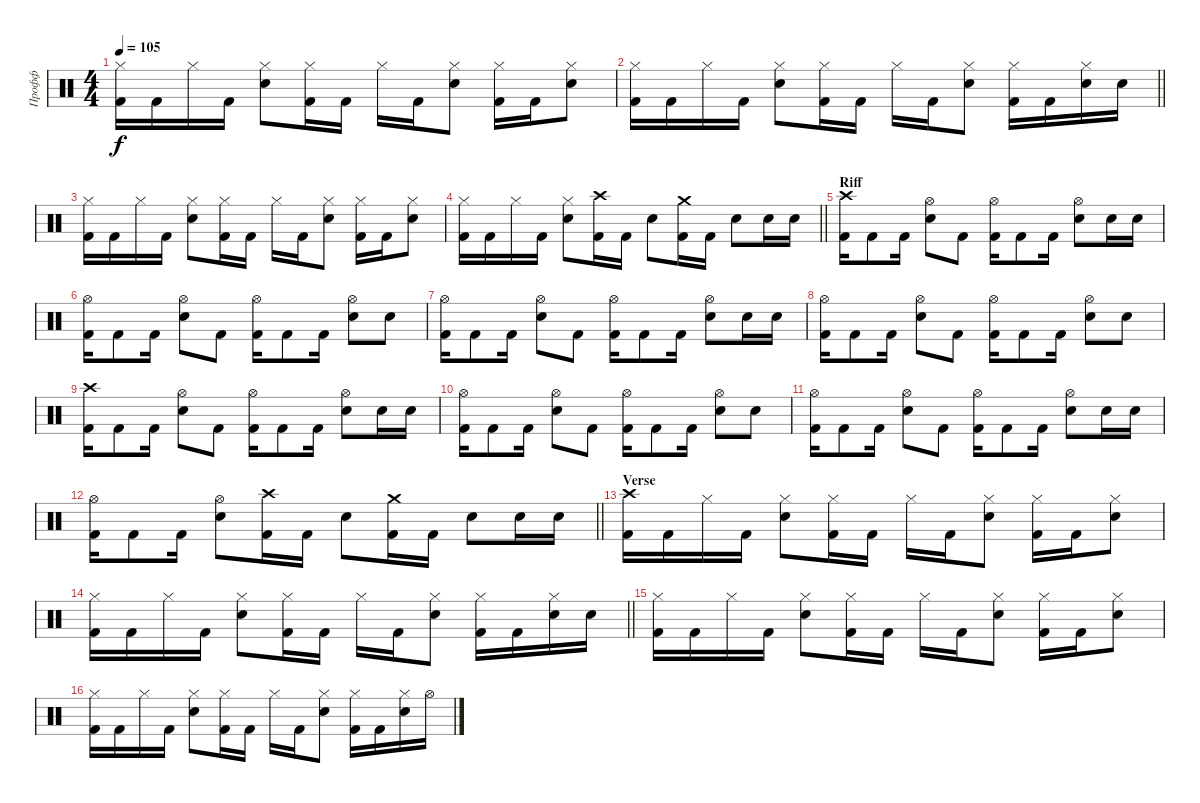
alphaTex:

\track ("Профф" "Профф") {instrument percussion}
\staff {score}
\articulation defaults
\ts (4 4)
\tempo 105
\clef neutral
\ks c
("Hi-Hat (closed)" "Kick (hit) 2").16{dy f} "Kick (hit) 2".16 "Hi-Hat (closed)".16 "Kick (hit) 2".16 ("Hi-Hat (closed)" "Snare (hit) 2").8 ("Hi-Hat (closed)" "Kick (hit) 2").16 "Kick (hit) 2".16 "Hi-Hat (closed)".16 "Kick (hit) 2".16 ("Hi-Hat (closed)" "Snare (hit) 2").8 ("Hi-Hat (closed)" "Kick (hit) 2").16 "Kick (hit) 2".16 ("Hi-Hat (closed)" "Snare (hit) 2").8 |
\barLineRight lightlight
("Hi-Hat (closed)" "Kick (hit) 2").16 "Kick (hit) 2".16 "Hi-Hat (closed)".16 "Kick (hit) 2".16 ("Hi-Hat (closed)" "Snare (hit) 2").8 ("Hi-Hat (closed)" "Kick (hit) 2").16 "Kick (hit) 2".16 "Hi-Hat (closed)".16 "Kick (hit) 2".16 ("Hi-Hat (closed)" "Snare (hit) 2").8 ("Hi-Hat (closed)" "Kick (hit) 2").16 "Kick (hit) 2".16 ("Hi-Hat (closed)" "Snare (hit) 2").16 "Snare (hit) 2".16 |
("Hi-Hat (closed)" "Kick (hit) 2").16 "Kick (hit) 2".16 "Hi-Hat (closed)".16 "Kick (hit) 2".16 ("Hi-Hat (closed)" "Snare (hit) 2").8 ("Hi-Hat (closed)" "Kick (hit) 2").16 "Kick (hit) 2".16 "Hi-Hat (closed)".16 "Kick (hit) 2".16 ("Hi-Hat (closed)" "Snare (hit) 2").8 ("Hi-Hat (closed)" "Kick (hit) 2").16 "Kick (hit) 2".16 ("Hi-Hat (closed)" "Snare (hit) 2").8 |
\barLineRight lightlight
("Hi-Hat (closed)" "Kick (hit) 2").16 "Kick (hit) 2".16 "Hi-Hat (closed)".16 "Kick (hit) 2".16 ("Hi-Hat (closed)" "Snare (hit) 2").8 ("Crash high (hit)" "Kick (hit) 2").16 "Kick (hit) 2".16 "Snare (hit) 2".8 ("Crash medium (hit)" "Kick (hit) 2").16 "Kick (hit) 2".16 "Snare (hit) 2".8 "Snare (hit) 2".16 "Snare (hit) 2".16 |
\section ("" "Riff")
("Crash high (hit)" "Kick (hit) 2").16 "Kick (hit) 2".8 "Kick (hit) 2".16 ("Hi-Hat (open)" "Snare (hit) 2").8 "Kick (hit) 2".8 ("Hi-Hat (open)" "Kick (hit) 2").16 "Kick (hit) 2".8 "Kick (hit) 2".16 ("Hi-Hat (open)" "Snare (hit) 2").8 "Snare (hit) 2".16 "Snare (hit) 2".16 |
("Hi-Hat (open)" "Kick (hit) 2").16 "Kick (hit) 2".8 "Kick (hit) 2".16 ("Hi-Hat (open)" "Snare (hit) 2").8 "Kick (hit) 2".8 ("Hi-Hat (open)" "Kick (hit) 2").16 "Kick (hit) 2".8 "Kick (hit) 2".16 ("Hi-Hat (open)" "Snare (hit) 2").8 "Snare (hit) 2".8 |
("Hi-Hat (open)" "Kick (hit) 2").16 "Kick (hit) 2".8 "Kick (hit) 2".16 ("Hi-Hat (open)" "Snare (hit) 2").8 "Kick (hit) 2".8 ("Hi-Hat (open)" "Kick (hit) 2").16 "Kick (hit) 2".8 "Kick (hit) 2".16 ("Hi-Hat (open)" "Snare (hit) 2").8 "Snare (hit) 2".16 "Snare (hit) 2".16 |
("Hi-Hat (open)" "Kick (hit) 2").16 "Kick (hit) 2".8 "Kick (hit) 2".16 ("Hi-Hat (open)" "Snare (hit) 2").8 "Kick (hit) 2".8 ("Hi-Hat (open)" "Kick (hit) 2").16 "Kick (hit) 2".8 "Kick (hit) 2".16 ("Hi-Hat (open)" "Snare (hit) 2").8 "Snare (hit) 2".8 |
("Crash high (hit)" "Kick (hit) 2").16 "Kick (hit) 2".8 "Kick (hit) 2".16 ("Hi-Hat (open)" "Snare (hit) 2").8 "Kick (hit) 2".8 ("Hi-Hat (open)" "Kick (hit) 2").16 "Kick (hit) 2".8 "Kick (hit) 2".16 ("Hi-Hat (open)" "Snare (hit) 2").8 "Snare (hit) 2".16 "Snare (hit) 2".16 |
("Hi-Hat (open)" "Kick (hit) 2").16 "Kick (hit) 2".8 "Kick (hit) 2".16 ("Hi-Hat (open)" "Snare (hit) 2").8 "Kick (hit) 2".8 ("Hi-Hat (open)" "Kick (hit) 2").16 "Kick (hit) 2".8 "Kick (hit) 2".16 ("Hi-Hat (open)" "Snare (hit) 2").8 "Snare (hit) 2".8 |
("Hi-Hat (open)" "Kick (hit) 2").16 "Kick (hit) 2".8 "Kick (hit) 2".16 ("Hi-Hat (open)" "Snare (hit) 2").8 "Kick (hit) 2".8 ("Hi-Hat (open)" "Kick (hit) 2").16 "Kick (hit) 2".8 "Kick (hit) 2".16 ("Hi-Hat (open)" "Snare (hit) 2").8 "Snare (hit) 2".16 "Snare (hit) 2".16 |
\barLineRight lightlight
("Hi-Hat (open)" "Kick (hit) 2").16 "Kick (hit) 2".8 "Kick (hit) 2".16 ("Hi-Hat (open)" "Snare (hit) 2").8 ("Crash high (hit)" "Kick (hit) 2").16 "Kick (hit) 2".16 "Snare (hit) 2".8 ("Crash medium (hit)" "Kick (hit) 2").16 "Kick (hit) 2".16 "Snare (hit) 2".8 "Snare (hit) 2".16 "Snare (hit) 2".16 |
\section ("" "Verse")
("Crash high (hit)" "Kick (hit) 2").16 "Kick (hit) 2".16 "Hi-Hat (closed)".16 "Kick (hit) 2".16 ("Hi-Hat (closed)" "Snare (hit) 2").8 ("Hi-Hat (closed)" "Kick (hit) 2").16 "Kick (hit) 2".16 "Hi-Hat (closed)".16 "Kick (hit) 2".16 ("Hi-Hat (closed)" "Snare (hit) 2").8 ("Hi-Hat (closed)" "Kick (hit) 2").16 "Kick (hit) 2".16 ("Hi-Hat (closed)" "Snare (hit) 2").8 |
\barLineRight lightlight
("Hi-Hat (closed)" "Kick (hit) 2").16 "Kick (hit) 2".16 "Hi-Hat (closed)".16 "Kick (hit) 2".16 ("Hi-Hat (closed)" "Snare (hit) 2").8 ("Hi-Hat (closed)" "Kick (hit) 2").16 "Kick (hit) 2".16 "Hi-Hat (closed)".16 "Kick (hit) 2".16 ("Hi-Hat (closed)" "Snare (hit) 2").8 ("Hi-Hat (closed)" "Kick (hit) 2").16 "Kick (hit) 2".16 ("Hi-Hat (closed)" "Snare (hit) 2").16 "Snare (hit) 2".16 |
("Hi-Hat (closed)" "Kick (hit) 2").16 "Kick (hit) 2".16 "Hi-Hat (closed)".16 "Kick (hit) 2".16 ("Hi-Hat (closed)" "Snare (hit) 2").8 ("Hi-Hat (closed)" "Kick (hit) 2").16 "Kick (hit) 2".16 "Hi-Hat (closed)".16 "Kick (hit) 2".16 ("Hi-Hat (closed)" "Snare (hit) 2").8 ("Hi-Hat (closed)" "Kick (hit) 2").16 "Kick (hit) 2".16 ("Hi-Hat (closed)" "Snare (hit) 2").8 |
("Hi-Hat (closed)" "Kick (hit) 2").16 "Kick (hit) 2".16 "Hi-Hat (closed)".16 "Kick (hit) 2".16 ("Hi-Hat (closed)" "Snare (hit) 2").8 ("Hi-Hat (closed)" "Kick (hit) 2").16 "Kick (hit) 2".16 "Hi-Hat (closed)".16 "Kick (hit) 2".16 ("Hi-Hat (closed)" "Snare (hit) 2").8 ("Hi-Hat (closed)" "Kick (hit) 2").16 "Kick (hit) 2".16 ("Hi-Hat (closed)" "Snare (hit) 2").16 "Hi-Hat (open)".16
